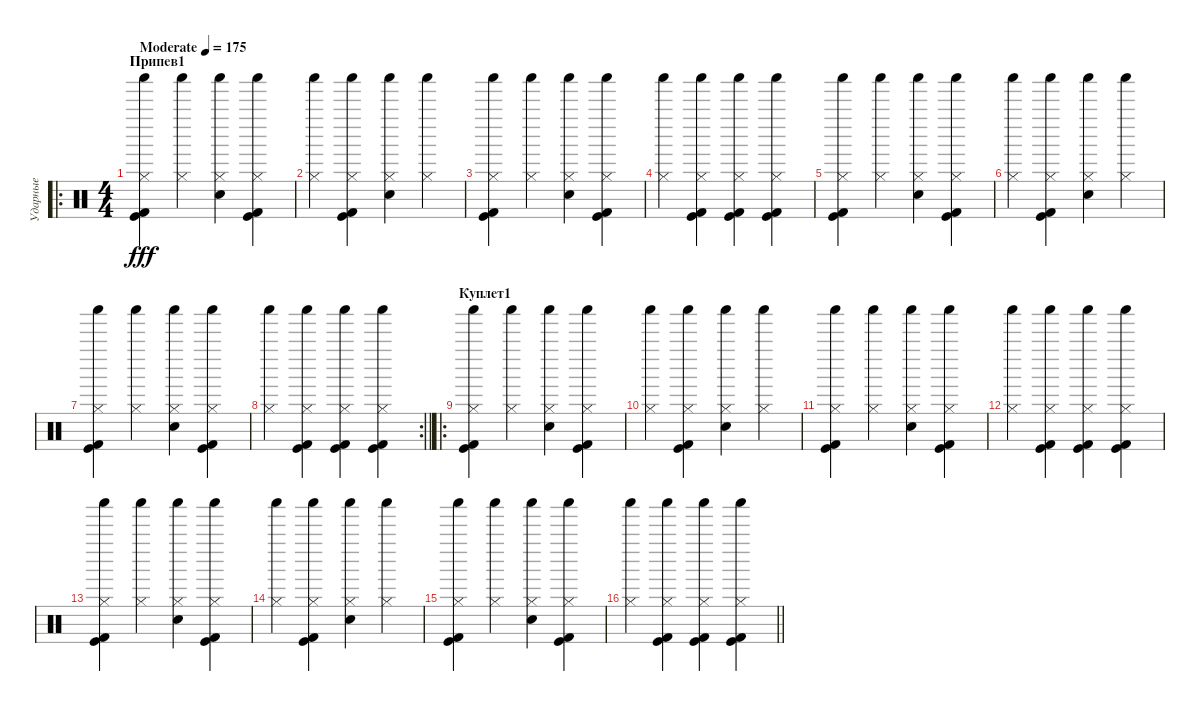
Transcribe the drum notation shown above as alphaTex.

\track ("Ударные" "Ударные") {instrument percussion}
\staff {score}
\articulation defaults
\ro
\ts (4 4)
\section ("" "Припев1")
\tempo (175 "Moderate")
\clef neutral
\ks c
("Kick (hit) 2" "Hi-Hat (closed)" "Kick (hit)" "Shaker (hit)").4{dy fff} ("Hi-Hat (closed)" "Shaker (hit)").4 ("Hi-Hat (closed)" "Snare (hit) 2" "Shaker (hit)").4 ("Kick (hit) 2" "Hi-Hat (closed)" "Kick (hit)" "Shaker (hit)").4 |
("Hi-Hat (closed)" "Shaker (hit)").4 ("Kick (hit) 2" "Hi-Hat (closed)" "Kick (hit)" "Shaker (hit)").4 ("Hi-Hat (closed)" "Snare (hit) 2" "Shaker (hit)").4 ("Hi-Hat (closed)" "Shaker (hit)").4 |
("Kick (hit) 2" "Hi-Hat (closed)" "Kick (hit)" "Shaker (hit)").4 ("Hi-Hat (closed)" "Shaker (hit)").4 ("Hi-Hat (closed)" "Snare (hit) 2" "Shaker (hit)").4 ("Kick (hit) 2" "Hi-Hat (closed)" "Kick (hit)" "Shaker (hit)").4 |
("Hi-Hat (closed)" "Shaker (hit)").4 ("Kick (hit) 2" "Hi-Hat (closed)" "Kick (hit)" "Shaker (hit)").4 ("Kick (hit) 2" "Hi-Hat (closed)" "Kick (hit)" "Shaker (hit)").4 ("Kick (hit) 2" "Hi-Hat (closed)" "Kick (hit)" "Shaker (hit)").4 |
("Kick (hit) 2" "Hi-Hat (closed)" "Kick (hit)" "Shaker (hit)").4 ("Hi-Hat (closed)" "Shaker (hit)").4 ("Hi-Hat (closed)" "Snare (hit) 2" "Shaker (hit)").4 ("Kick (hit) 2" "Hi-Hat (closed)" "Kick (hit)" "Shaker (hit)").4 |
("Hi-Hat (closed)" "Shaker (hit)").4 ("Kick (hit) 2" "Hi-Hat (closed)" "Kick (hit)" "Shaker (hit)").4 ("Hi-Hat (closed)" "Snare (hit) 2" "Shaker (hit)").4 ("Hi-Hat (closed)" "Shaker (hit)").4 |
("Kick (hit) 2" "Hi-Hat (closed)" "Kick (hit)" "Shaker (hit)").4 ("Hi-Hat (closed)" "Shaker (hit)").4 ("Hi-Hat (closed)" "Snare (hit) 2" "Shaker (hit)").4 ("Kick (hit) 2" "Hi-Hat (closed)" "Kick (hit)" "Shaker (hit)").4 |
\rc 2
\barLineRight lightlight
("Hi-Hat (closed)" "Shaker (hit)").4 ("Kick (hit) 2" "Hi-Hat (closed)" "Kick (hit)" "Shaker (hit)").4 ("Kick (hit) 2" "Hi-Hat (closed)" "Kick (hit)" "Shaker (hit)").4 ("Kick (hit) 2" "Hi-Hat (closed)" "Kick (hit)" "Shaker (hit)").4 |
\ro
\section ("" "Куплет1")
("Kick (hit) 2" "Hi-Hat (closed)" "Kick (hit)" "Shaker (hit)").4 ("Hi-Hat (closed)" "Shaker (hit)").4 ("Hi-Hat (closed)" "Snare (hit) 2" "Shaker (hit)").4 ("Kick (hit) 2" "Hi-Hat (closed)" "Kick (hit)" "Shaker (hit)").4 |
("Hi-Hat (closed)" "Shaker (hit)").4 ("Kick (hit) 2" "Hi-Hat (closed)" "Kick (hit)" "Shaker (hit)").4 ("Hi-Hat (closed)" "Snare (hit) 2" "Shaker (hit)").4 ("Hi-Hat (closed)" "Shaker (hit)").4 |
("Kick (hit) 2" "Hi-Hat (closed)" "Kick (hit)" "Shaker (hit)").4 ("Hi-Hat (closed)" "Shaker (hit)").4 ("Hi-Hat (closed)" "Snare (hit) 2" "Shaker (hit)").4 ("Kick (hit) 2" "Hi-Hat (closed)" "Kick (hit)" "Shaker (hit)").4 |
("Hi-Hat (closed)" "Shaker (hit)").4 ("Kick (hit) 2" "Hi-Hat (closed)" "Kick (hit)" "Shaker (hit)").4 ("Kick (hit) 2" "Hi-Hat (closed)" "Kick (hit)" "Shaker (hit)").4 ("Kick (hit) 2" "Hi-Hat (closed)" "Kick (hit)" "Shaker (hit)").4 |
("Kick (hit) 2" "Hi-Hat (closed)" "Kick (hit)" "Shaker (hit)").4 ("Hi-Hat (closed)" "Shaker (hit)").4 ("Hi-Hat (closed)" "Snare (hit) 2" "Shaker (hit)").4 ("Kick (hit) 2" "Hi-Hat (closed)" "Kick (hit)" "Shaker (hit)").4 |
("Hi-Hat (closed)" "Shaker (hit)").4 ("Kick (hit) 2" "Hi-Hat (closed)" "Kick (hit)" "Shaker (hit)").4 ("Hi-Hat (closed)" "Snare (hit) 2" "Shaker (hit)").4 ("Hi-Hat (closed)" "Shaker (hit)").4 |
("Kick (hit) 2" "Hi-Hat (closed)" "Kick (hit)" "Shaker (hit)").4 ("Hi-Hat (closed)" "Shaker (hit)").4 ("Hi-Hat (closed)" "Snare (hit) 2" "Shaker (hit)").4 ("Kick (hit) 2" "Hi-Hat (closed)" "Kick (hit)" "Shaker (hit)").4 |
\barLineRight lightlight
("Hi-Hat (closed)" "Shaker (hit)").4 ("Kick (hit) 2" "Hi-Hat (closed)" "Kick (hit)" "Shaker (hit)").4 ("Kick (hit) 2" "Hi-Hat (closed)" "Kick (hit)" "Shaker (hit)").4 ("Kick (hit) 2" "Hi-Hat (closed)" "Kick (hit)" "Shaker (hit)").4
